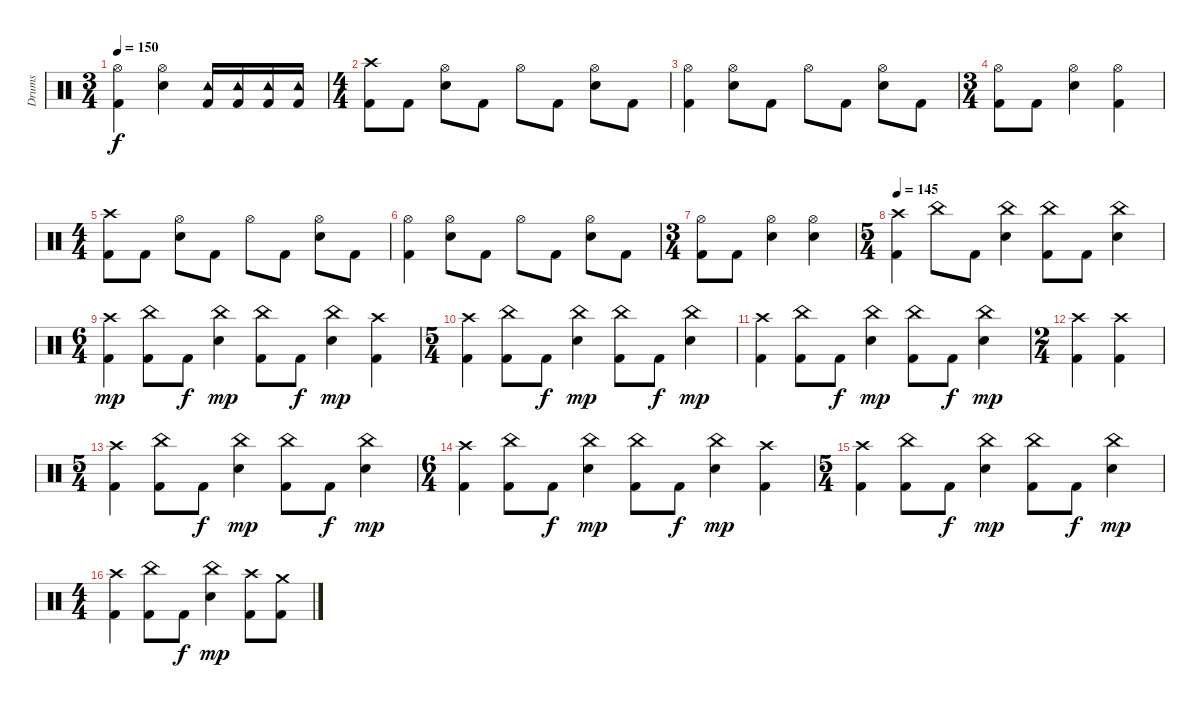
\track ("Drums" "Drums") {instrument percussion}
\staff {score}
\articulation defaults
\ts (3 4)
\tempo 150
\clef neutral
\ks c
("Hi-Hat (open)" "Kick (hit) 2").4{dy f} ("Electric Snare (hit)" "Hi-Hat (open)").4 ("Tambourine (hit)" "Kick (hit) 2").16 ("Tambourine (hit)" "Kick (hit) 2").16 ("Tambourine (hit)" "Kick (hit) 2").16 ("Tambourine (hit)" "Kick (hit) 2").16 |
\ts (4 4)
("Crash high (hit)" "Kick (hit) 2").8 "Kick (hit) 2".8 ("Electric Snare (hit)" "Hi-Hat (open)").8 "Kick (hit) 2".8 "Hi-Hat (open)".8 "Kick (hit) 2".8 ("Hi-Hat (open)" "Electric Snare (hit)").8 "Kick (hit) 2".8 |
("Hi-Hat (open)" "Kick (hit) 2").4 ("Electric Snare (hit)" "Hi-Hat (open)").8 "Kick (hit) 2".8 "Hi-Hat (open)".8 "Kick (hit) 2".8 ("Electric Snare (hit)" "Hi-Hat (open)").8 "Kick (hit) 2".8 |
\ts (3 4)
("Kick (hit) 2" "Hi-Hat (open)").8 "Kick (hit) 2".8 ("Electric Snare (hit)" "Hi-Hat (open)").4 ("Kick (hit) 2" "Hi-Hat (open)").4 |
\ts (4 4)
("Crash high (hit)" "Kick (hit) 2").8 "Kick (hit) 2".8 ("Electric Snare (hit)" "Hi-Hat (open)").8 "Kick (hit) 2".8 "Hi-Hat (open)".8 "Kick (hit) 2".8 ("Hi-Hat (open)" "Electric Snare (hit)").8 "Kick (hit) 2".8 |
("Hi-Hat (open)" "Kick (hit) 2").4 ("Electric Snare (hit)" "Hi-Hat (open)").8 "Kick (hit) 2".8 "Hi-Hat (open)".8 "Kick (hit) 2".8 ("Electric Snare (hit)" "Hi-Hat (open)").8 "Kick (hit) 2".8 |
\ts (3 4)
("Kick (hit) 2" "Hi-Hat (open)").8 "Kick (hit) 2".8 ("Electric Snare (hit)" "Hi-Hat (open)").4 ("Hi-Hat (open)" "Electric Snare (hit)").4 |
\ts (5 4)
\tempo 145
("Kick (hit) 2" "Crash high (hit)").4{volume 11} "China (hit)".8 "Kick (hit) 2".8 ("China (hit)" "Electric Snare (hit)").4 ("China (hit)" "Kick (hit) 2").8 "Kick (hit) 2".8 ("China (hit)" "Electric Snare (hit)").4 |
\ts (6 4)
("Crash high (hit)" "Kick (hit) 2").4{dy mp} ("Kick (hit) 2" "China (hit)").8 "Kick (hit) 2".8{dy f} ("Electric Snare (hit)" "China (hit)").4{dy mp} ("Kick (hit) 2" "China (hit)").8 "Kick (hit) 2".8{dy f} ("Electric Snare (hit)" "China (hit)").4{dy mp} ("Kick (hit) 2" "Crash high (hit)").4 |
\ts (5 4)
("Crash high (hit)" "Kick (hit) 2").4 ("China (hit)" "Kick (hit) 2").8 "Kick (hit) 2".8{dy f} ("China (hit)" "Electric Snare (hit)").4{dy mp} ("China (hit)" "Kick (hit) 2").8 "Kick (hit) 2".8{dy f} ("China (hit)" "Electric Snare (hit)").4{dy mp} |
("Kick (hit) 2" "Crash high (hit)").4 ("Kick (hit) 2" "China (hit)").8 "Kick (hit) 2".8{dy f} ("Electric Snare (hit)" "China (hit)").4{dy mp} ("Kick (hit) 2" "China (hit)").8 "Kick (hit) 2".8{dy f} ("Electric Snare (hit)" "China (hit)").4{dy mp} |
\ts (2 4)
("Kick (hit) 2" "Crash high (hit)").4 ("Crash high (hit)" "Kick (hit) 2").4 |
\ts (5 4)
("Kick (hit) 2" "Crash high (hit)").4 ("China (hit)" "Kick (hit) 2").8 "Kick (hit) 2".8{dy f} ("China (hit)" "Electric Snare (hit)").4{dy mp} ("China (hit)" "Kick (hit) 2").8 "Kick (hit) 2".8{dy f} ("China (hit)" "Electric Snare (hit)").4{dy mp} |
\ts (6 4)
("Kick (hit) 2" "Crash high (hit)").4 ("China (hit)" "Kick (hit) 2").8 "Kick (hit) 2".8{dy f} ("China (hit)" "Electric Snare (hit)").4{dy mp} ("China (hit)" "Kick (hit) 2").8 "Kick (hit) 2".8{dy f} ("China (hit)" "Electric Snare (hit)").4{dy mp} ("Crash high (hit)" "Kick (hit) 2").4 |
\ts (5 4)
("Crash high (hit)" "Kick (hit) 2").4 ("China (hit)" "Kick (hit) 2").8 "Kick (hit) 2".8{dy f} ("China (hit)" "Electric Snare (hit)").4{dy mp} ("China (hit)" "Kick (hit) 2").8 "Kick (hit) 2".8{dy f} ("China (hit)" "Electric Snare (hit)").4{dy mp} |
\ts (4 4)
("Crash high (hit)" "Kick (hit) 2").4 ("Kick (hit) 2" "China (hit)").8 "Kick (hit) 2".8{dy f} ("Electric Snare (hit)" "China (hit)").4{dy mp} ("Kick (hit) 2" "Crash high (hit)").8 ("Kick (hit) 2" "Crash medium (hit)").8
